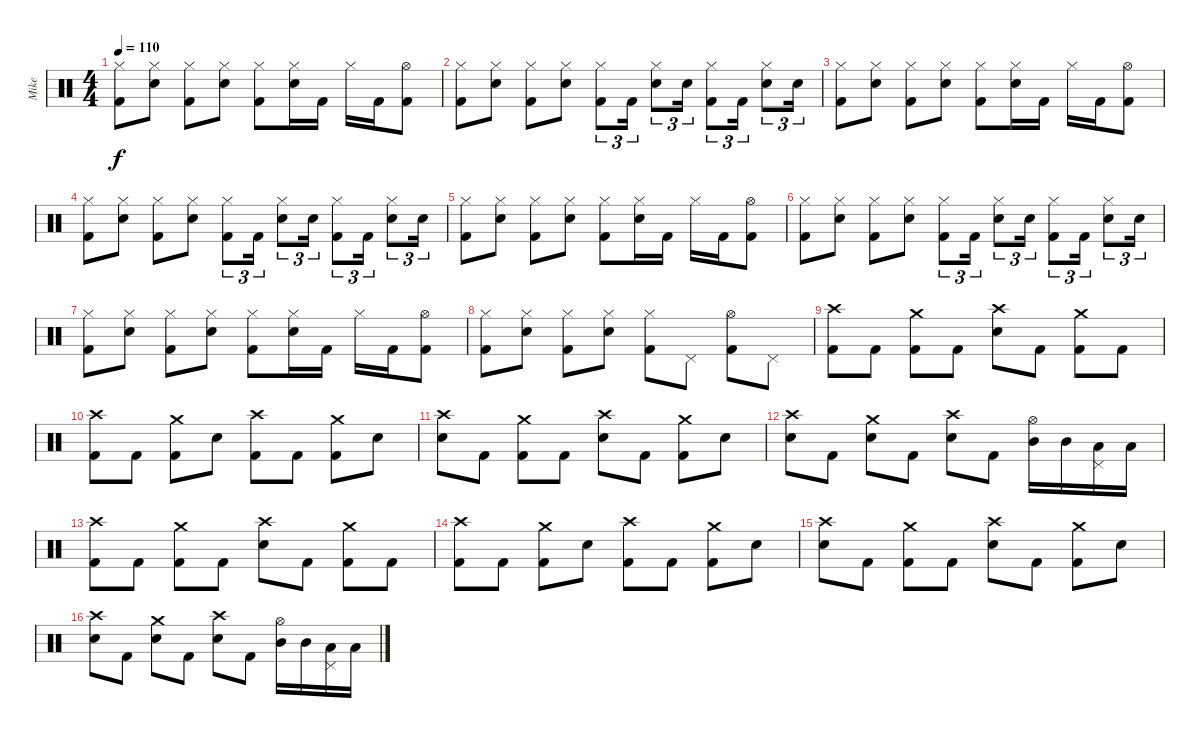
\track ("Mike" "Mike") {instrument percussion}
\staff {score}
\articulation defaults
\ts (4 4)
\tempo 110
\clef neutral
\ks c
("Hi-Hat (closed)" "Kick (hit) 2").8{dy f} ("Hi-Hat (closed)" "Electric Snare (hit)").8 ("Hi-Hat (closed)" "Kick (hit) 2").8 ("Hi-Hat (closed)" "Electric Snare (hit)").8 ("Hi-Hat (closed)" "Kick (hit) 2").8 ("Hi-Hat (closed)" "Electric Snare (hit)").16 "Kick (hit) 2".16 "Hi-Hat (closed)".16 "Kick (hit) 2".16 ("Hi-Hat (open)" "Kick (hit) 2").8 |
("Hi-Hat (closed)" "Kick (hit) 2").8 ("Hi-Hat (closed)" "Electric Snare (hit)").8 ("Hi-Hat (closed)" "Kick (hit) 2").8 ("Hi-Hat (closed)" "Electric Snare (hit)").8 ("Hi-Hat (closed)" "Kick (hit) 2").8{tu (3 2)} "Kick (hit) 2".16{tu (3 2)} ("Hi-Hat (closed)" "Electric Snare (hit)").8{tu (3 2)} "Electric Snare (hit)".16{tu (3 2)} ("Hi-Hat (closed)" "Kick (hit) 2").8{tu (3 2)} "Kick (hit) 2".16{tu (3 2)} ("Hi-Hat (closed)" "Electric Snare (hit)").8{tu (3 2)} "Electric Snare (hit)".16{tu (3 2)} |
("Hi-Hat (closed)" "Kick (hit) 2").8 ("Hi-Hat (closed)" "Electric Snare (hit)").8 ("Hi-Hat (closed)" "Kick (hit) 2").8 ("Hi-Hat (closed)" "Electric Snare (hit)").8 ("Hi-Hat (closed)" "Kick (hit) 2").8 ("Hi-Hat (closed)" "Electric Snare (hit)").16 "Kick (hit) 2".16 "Hi-Hat (closed)".16 "Kick (hit) 2".16 ("Hi-Hat (open)" "Kick (hit) 2").8 |
("Hi-Hat (closed)" "Kick (hit) 2").8 ("Hi-Hat (closed)" "Electric Snare (hit)").8 ("Hi-Hat (closed)" "Kick (hit) 2").8 ("Hi-Hat (closed)" "Electric Snare (hit)").8 ("Hi-Hat (closed)" "Kick (hit) 2").8{tu (3 2)} "Kick (hit) 2".16{tu (3 2)} ("Hi-Hat (closed)" "Electric Snare (hit)").8{tu (3 2)} "Electric Snare (hit)".16{tu (3 2)} ("Hi-Hat (closed)" "Kick (hit) 2").8{tu (3 2)} "Kick (hit) 2".16{tu (3 2)} ("Hi-Hat (closed)" "Electric Snare (hit)").8{tu (3 2)} "Electric Snare (hit)".16{tu (3 2)} |
("Hi-Hat (closed)" "Kick (hit) 2").8 ("Hi-Hat (closed)" "Electric Snare (hit)").8 ("Hi-Hat (closed)" "Kick (hit) 2").8 ("Hi-Hat (closed)" "Electric Snare (hit)").8 ("Hi-Hat (closed)" "Kick (hit) 2").8 ("Hi-Hat (closed)" "Electric Snare (hit)").16 "Kick (hit) 2".16 "Hi-Hat (closed)".16 "Kick (hit) 2".16 ("Hi-Hat (open)" "Kick (hit) 2").8 |
("Hi-Hat (closed)" "Kick (hit) 2").8 ("Hi-Hat (closed)" "Electric Snare (hit)").8 ("Hi-Hat (closed)" "Kick (hit) 2").8 ("Hi-Hat (closed)" "Electric Snare (hit)").8 ("Hi-Hat (closed)" "Kick (hit) 2").8{tu (3 2)} "Kick (hit) 2".16{tu (3 2)} ("Hi-Hat (closed)" "Electric Snare (hit)").8{tu (3 2)} "Electric Snare (hit)".16{tu (3 2)} ("Hi-Hat (closed)" "Kick (hit) 2").8{tu (3 2)} "Kick (hit) 2".16{tu (3 2)} ("Hi-Hat (closed)" "Electric Snare (hit)").8{tu (3 2)} "Electric Snare (hit)".16{tu (3 2)} |
("Hi-Hat (closed)" "Kick (hit) 2").8 ("Hi-Hat (closed)" "Electric Snare (hit)").8 ("Hi-Hat (closed)" "Kick (hit) 2").8 ("Hi-Hat (closed)" "Electric Snare (hit)").8 ("Hi-Hat (closed)" "Kick (hit) 2").8 ("Hi-Hat (closed)" "Electric Snare (hit)").16 "Kick (hit) 2".16 "Hi-Hat (closed)".16 "Kick (hit) 2".16 ("Hi-Hat (open)" "Kick (hit) 2").8 |
("Hi-Hat (closed)" "Kick (hit) 2").8 ("Hi-Hat (closed)" "Electric Snare (hit)").8 ("Hi-Hat (closed)" "Kick (hit) 2").8 ("Hi-Hat (closed)" "Electric Snare (hit)").8 ("Hi-Hat (closed)" "Kick (hit) 2").8 "Pedal Hi-Hat (hit)".8 ("Hi-Hat (open)" "Kick (hit) 2").8 "Pedal Hi-Hat (hit)".8 |
("Crash high (hit)" "Kick (hit) 2").8 "Kick (hit) 2".8 ("Crash medium (hit)" "Kick (hit) 2").8 "Kick (hit) 2".8 ("Crash high (hit)" "Electric Snare (hit)").8 "Kick (hit) 2".8 ("Crash medium (hit)" "Kick (hit) 2").8 "Kick (hit) 2".8 |
("Crash high (hit)" "Kick (hit) 2").8 "Kick (hit) 2".8 ("Crash medium (hit)" "Kick (hit) 2").8 "Electric Snare (hit)".8 ("Crash high (hit)" "Kick (hit) 2").8 "Kick (hit) 2".8 ("Crash medium (hit)" "Kick (hit) 2").8 "Electric Snare (hit)".8 |
("Crash high (hit)" "Electric Snare (hit)").8 "Kick (hit) 2".8 ("Crash medium (hit)" "Kick (hit) 2").8 "Kick (hit) 2".8 ("Crash high (hit)" "Electric Snare (hit)").8 "Kick (hit) 2".8 ("Crash medium (hit)" "Kick (hit) 2").8 "Electric Snare (hit)".8 |
("Crash high (hit)" "Electric Snare (hit)").8 "Kick (hit) 2".8 ("Crash medium (hit)" "Electric Snare (hit)").8 "Kick (hit) 2".8 ("Crash high (hit)" "Electric Snare (hit)").8 "Kick (hit) 2".8 ("Hi-Hat (open)" "Mid Tom (hit)").16 "Mid Tom (hit)".16 ("Pedal Hi-Hat (hit)" "Low Tom (hit)").16 "Low Tom (hit)".16 |
("Crash high (hit)" "Kick (hit) 2").8 "Kick (hit) 2".8 ("Crash medium (hit)" "Kick (hit) 2").8 "Kick (hit) 2".8 ("Crash high (hit)" "Electric Snare (hit)").8 "Kick (hit) 2".8 ("Crash medium (hit)" "Kick (hit) 2").8 "Kick (hit) 2".8 |
("Crash high (hit)" "Kick (hit) 2").8 "Kick (hit) 2".8 ("Crash medium (hit)" "Kick (hit) 2").8 "Electric Snare (hit)".8 ("Crash high (hit)" "Kick (hit) 2").8 "Kick (hit) 2".8 ("Crash medium (hit)" "Kick (hit) 2").8 "Electric Snare (hit)".8 |
("Crash high (hit)" "Electric Snare (hit)").8 "Kick (hit) 2".8 ("Crash medium (hit)" "Kick (hit) 2").8 "Kick (hit) 2".8 ("Crash high (hit)" "Electric Snare (hit)").8 "Kick (hit) 2".8 ("Crash medium (hit)" "Kick (hit) 2").8 "Electric Snare (hit)".8 |
("Crash high (hit)" "Electric Snare (hit)").8 "Kick (hit) 2".8 ("Crash medium (hit)" "Electric Snare (hit)").8 "Kick (hit) 2".8 ("Crash high (hit)" "Electric Snare (hit)").8 "Kick (hit) 2".8 ("Hi-Hat (open)" "Mid Tom (hit)").16 "Mid Tom (hit)".16 ("Pedal Hi-Hat (hit)" "Low Tom (hit)").16 "Low Tom (hit)".16
